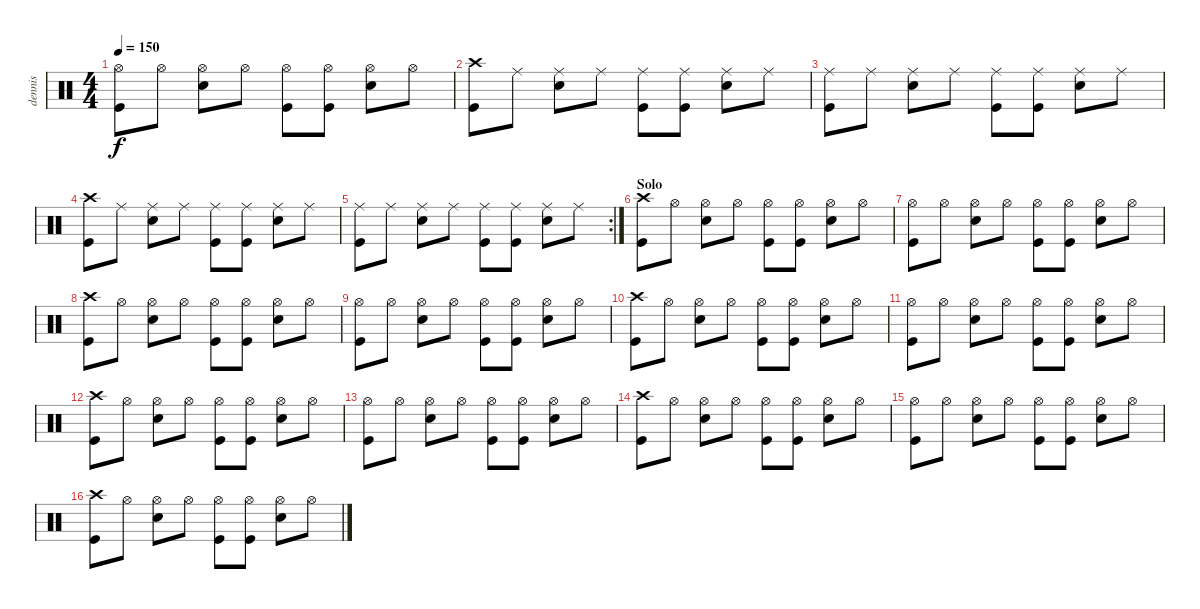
\track ("dennis" "dennis") {instrument percussion}
\staff {score}
\articulation defaults
\ts (4 4)
\tempo 150
\clef neutral
\ks c
("Hi-Hat (open)" "Kick (hit)").8{dy f} "Hi-Hat (open)".8 ("Hi-Hat (open)" "Electric Snare (hit)").8 "Hi-Hat (open)".8 ("Hi-Hat (open)" "Kick (hit)").8 ("Hi-Hat (open)" "Kick (hit)").8 ("Hi-Hat (open)" "Electric Snare (hit)").8 "Hi-Hat (open)".8 |
("Crash high (hit)" "Kick (hit)").8 "Ride (middle)".8 ("Ride (middle)" "Electric Snare (hit)").8 "Ride (middle)".8 ("Ride (middle)" "Kick (hit)").8 ("Ride (middle)" "Kick (hit)").8 ("Ride (middle)" "Electric Snare (hit)").8 "Ride (middle)".8 |
("Ride (middle)" "Kick (hit)").8 "Ride (middle)".8 ("Ride (middle)" "Electric Snare (hit)").8 "Ride (middle)".8 ("Ride (middle)" "Kick (hit)").8 ("Ride (middle)" "Kick (hit)").8 ("Ride (middle)" "Electric Snare (hit)").8 "Ride (middle)".8 |
("Crash high (hit)" "Kick (hit)").8 "Ride (middle)".8 ("Ride (middle)" "Electric Snare (hit)").8 "Ride (middle)".8 ("Ride (middle)" "Kick (hit)").8 ("Ride (middle)" "Kick (hit)").8 ("Ride (middle)" "Electric Snare (hit)").8 "Ride (middle)".8 |
\rc 2
("Ride (middle)" "Kick (hit)").8 "Ride (middle)".8 ("Ride (middle)" "Electric Snare (hit)").8 "Ride (middle)".8 ("Ride (middle)" "Kick (hit)").8 ("Ride (middle)" "Kick (hit)").8 ("Ride (middle)" "Electric Snare (hit)").8 "Ride (middle)".8 |
\section ("" "Solo")
("Crash high (hit)" "Kick (hit)").8 "Hi-Hat (open)".8 ("Hi-Hat (open)" "Electric Snare (hit)").8 "Hi-Hat (open)".8 ("Hi-Hat (open)" "Kick (hit)").8 ("Hi-Hat (open)" "Kick (hit)").8 ("Hi-Hat (open)" "Electric Snare (hit)").8 "Hi-Hat (open)".8 |
("Hi-Hat (open)" "Kick (hit)").8 "Hi-Hat (open)".8 ("Hi-Hat (open)" "Electric Snare (hit)").8 "Hi-Hat (open)".8 ("Hi-Hat (open)" "Kick (hit)").8 ("Hi-Hat (open)" "Kick (hit)").8 ("Hi-Hat (open)" "Electric Snare (hit)").8 "Hi-Hat (open)".8 |
("Crash high (hit)" "Kick (hit)").8 "Hi-Hat (open)".8 ("Hi-Hat (open)" "Electric Snare (hit)").8 "Hi-Hat (open)".8 ("Hi-Hat (open)" "Kick (hit)").8 ("Hi-Hat (open)" "Kick (hit)").8 ("Hi-Hat (open)" "Electric Snare (hit)").8 "Hi-Hat (open)".8 |
("Hi-Hat (open)" "Kick (hit)").8 "Hi-Hat (open)".8 ("Hi-Hat (open)" "Electric Snare (hit)").8 "Hi-Hat (open)".8 ("Hi-Hat (open)" "Kick (hit)").8 ("Hi-Hat (open)" "Kick (hit)").8 ("Hi-Hat (open)" "Electric Snare (hit)").8 "Hi-Hat (open)".8 |
("Crash high (hit)" "Kick (hit)").8 "Hi-Hat (open)".8 ("Hi-Hat (open)" "Electric Snare (hit)").8 "Hi-Hat (open)".8 ("Hi-Hat (open)" "Kick (hit)").8 ("Hi-Hat (open)" "Kick (hit)").8 ("Hi-Hat (open)" "Electric Snare (hit)").8 "Hi-Hat (open)".8 |
("Hi-Hat (open)" "Kick (hit)").8 "Hi-Hat (open)".8 ("Hi-Hat (open)" "Electric Snare (hit)").8 "Hi-Hat (open)".8 ("Hi-Hat (open)" "Kick (hit)").8 ("Hi-Hat (open)" "Kick (hit)").8 ("Hi-Hat (open)" "Electric Snare (hit)").8 "Hi-Hat (open)".8 |
("Crash high (hit)" "Kick (hit)").8 "Hi-Hat (open)".8 ("Hi-Hat (open)" "Electric Snare (hit)").8 "Hi-Hat (open)".8 ("Hi-Hat (open)" "Kick (hit)").8 ("Hi-Hat (open)" "Kick (hit)").8 ("Hi-Hat (open)" "Electric Snare (hit)").8 "Hi-Hat (open)".8 |
("Hi-Hat (open)" "Kick (hit)").8 "Hi-Hat (open)".8 ("Hi-Hat (open)" "Electric Snare (hit)").8 "Hi-Hat (open)".8 ("Hi-Hat (open)" "Kick (hit)").8 ("Hi-Hat (open)" "Kick (hit)").8 ("Hi-Hat (open)" "Electric Snare (hit)").8 "Hi-Hat (open)".8 |
("Crash high (hit)" "Kick (hit)").8 "Hi-Hat (open)".8 ("Hi-Hat (open)" "Electric Snare (hit)").8 "Hi-Hat (open)".8 ("Hi-Hat (open)" "Kick (hit)").8 ("Hi-Hat (open)" "Kick (hit)").8 ("Hi-Hat (open)" "Electric Snare (hit)").8 "Hi-Hat (open)".8 |
("Hi-Hat (open)" "Kick (hit)").8 "Hi-Hat (open)".8 ("Hi-Hat (open)" "Electric Snare (hit)").8 "Hi-Hat (open)".8 ("Hi-Hat (open)" "Kick (hit)").8 ("Hi-Hat (open)" "Kick (hit)").8 ("Hi-Hat (open)" "Electric Snare (hit)").8 "Hi-Hat (open)".8 |
("Crash high (hit)" "Kick (hit)").8 "Hi-Hat (open)".8 ("Hi-Hat (open)" "Electric Snare (hit)").8 "Hi-Hat (open)".8 ("Hi-Hat (open)" "Kick (hit)").8 ("Hi-Hat (open)" "Kick (hit)").8 ("Hi-Hat (open)" "Electric Snare (hit)").8 "Hi-Hat (open)".8
